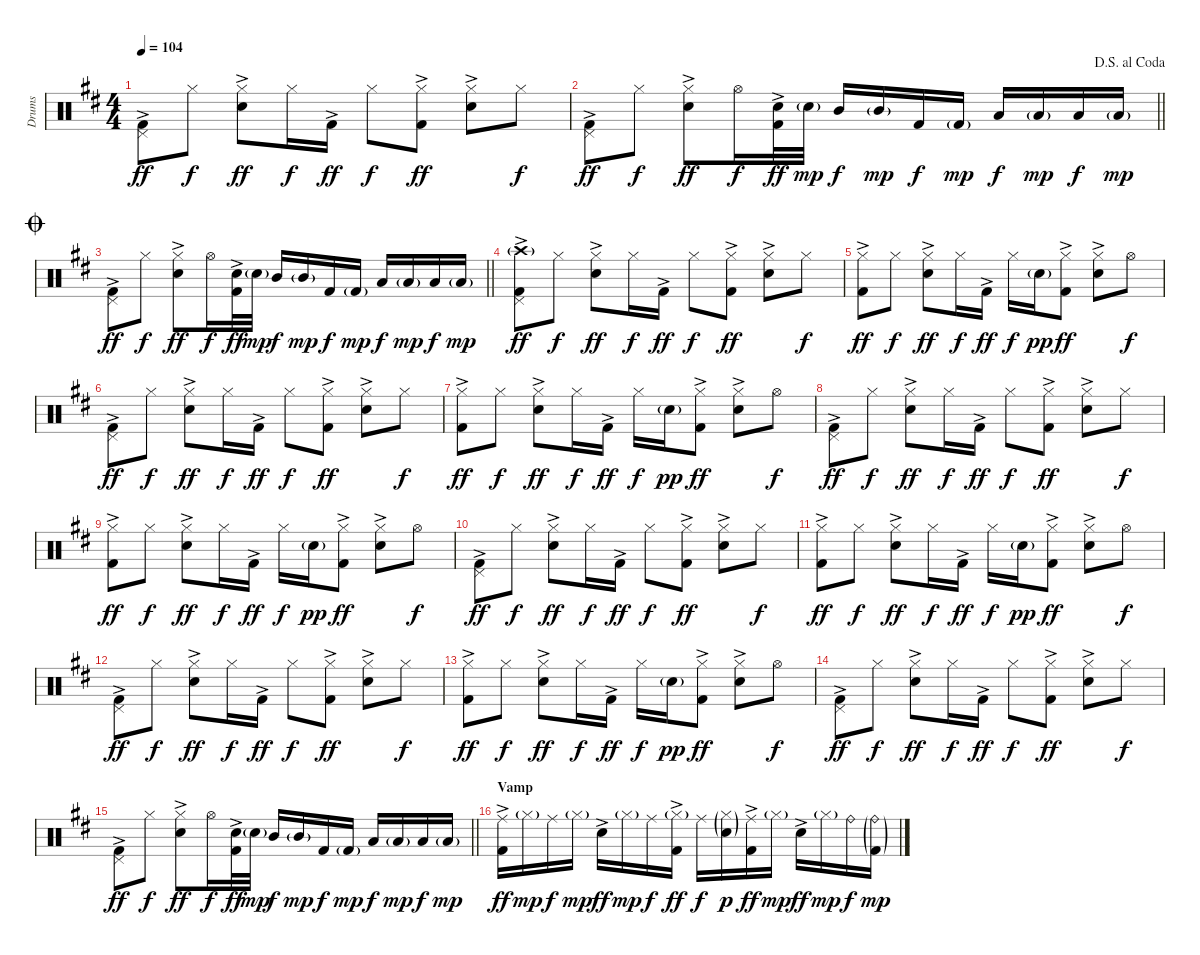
\track ("Drums" "Drums") {instrument percussion}
\staff {score}
\articulation defaults
\ts (4 4)
\tempo 104
\clef neutral
\ks d
("Pedal Hi-Hat (hit)" "Kick (hit) 2"{ac}).8{dy ff} "Hi-Hat (closed)".8{dy f} ("Hi-Hat (closed)" "Snare (hit) 2"{ac}).8{dy ff} "Hi-Hat (closed)".16{dy f} "Kick (hit) 2"{ac}.16{dy ff} "Hi-Hat (closed)".8{dy f} ("Hi-Hat (closed)" "Kick (hit) 2"{ac}).8{dy ff} ("Hi-Hat (closed)" "Snare (hit) 2"{ac}).8 "Hi-Hat (closed)".8{dy f} |
\jump dalsegnoalcoda
\barLineRight lightlight
("Pedal Hi-Hat (hit)" "Kick (hit) 2"{ac}).8{dy ff} "Hi-Hat (closed)".8{dy f} ("Hi-Hat (closed)" "Snare (hit) 2"{ac}).8{dy ff} "Hi-Hat (open)".16{dy f} ("Snare (hit) 2" "Kick (hit) 2"{ac}).32{dy ff} "Snare (hit) 2"{g}.32{dy mp} "Mid Tom (hit)".16{dy f} "Mid Tom (hit)"{g}.16{dy mp} "Kick (hit) 2".16{dy f} "Kick (hit) 2"{g}.16{dy mp} "Low Tom (hit)".16{dy f} "Low Tom (hit)"{g}.16{dy mp} "Low Floor Tom (hit)".16{dy f} "Low Floor Tom (hit)"{g}.16{dy mp} |
\jump coda
\barLineRight lightlight
("Pedal Hi-Hat (hit)" "Kick (hit) 2"{ac}).8{dy ff} "Hi-Hat (closed)".8{dy f} ("Hi-Hat (closed)" "Snare (hit) 2"{ac}).8{dy ff} "Hi-Hat (open)".16{dy f} ("Snare (hit) 2" "Kick (hit) 2"{ac}).32{dy ff} "Snare (hit) 2"{g}.32{dy mp} "Mid Tom (hit)".16{dy f} "Mid Tom (hit)"{g}.16{dy mp} "Kick (hit) 2".16{dy f} "Kick (hit) 2"{g}.16{dy mp} "Low Tom (hit)".16{dy f} "Low Tom (hit)"{g}.16{dy mp} "Low Floor Tom (hit)".16{dy f} "Low Floor Tom (hit)"{g}.16{dy mp} |
("Pedal Hi-Hat (hit)" "Crash high (hit)"{g} "Kick (hit) 2"{ac}).8{dy ff} "Hi-Hat (closed)".8{dy f} ("Hi-Hat (closed)" "Snare (hit) 2"{ac}).8{dy ff} "Hi-Hat (closed)".16{dy f} "Kick (hit) 2"{ac}.16{dy ff} "Hi-Hat (closed)".8{dy f} ("Hi-Hat (closed)" "Kick (hit) 2"{ac}).8{dy ff} ("Hi-Hat (closed)" "Snare (hit) 2"{ac}).8 "Hi-Hat (closed)".8{dy f} |
("Hi-Hat (closed)" "Kick (hit) 2"{ac}).8{dy ff} "Hi-Hat (closed)".8{dy f} ("Hi-Hat (closed)" "Snare (hit) 2"{ac}).8{dy ff} "Hi-Hat (closed)".16{dy f} "Kick (hit) 2"{ac}.16{dy ff} "Hi-Hat (closed)".16{dy f} "Snare (hit) 2"{g}.16{dy pp} ("Hi-Hat (closed)" "Kick (hit) 2"{ac}).8{dy ff} ("Hi-Hat (closed)" "Snare (hit) 2"{ac}).8 "Hi-Hat (open)".8{dy f} |
("Pedal Hi-Hat (hit)" "Kick (hit) 2"{ac}).8{dy ff} "Hi-Hat (closed)".8{dy f} ("Hi-Hat (closed)" "Snare (hit) 2"{ac}).8{dy ff} "Hi-Hat (closed)".16{dy f} "Kick (hit) 2"{ac}.16{dy ff} "Hi-Hat (closed)".8{dy f} ("Hi-Hat (closed)" "Kick (hit) 2"{ac}).8{dy ff} ("Hi-Hat (closed)" "Snare (hit) 2"{ac}).8 "Hi-Hat (closed)".8{dy f} |
("Hi-Hat (closed)" "Kick (hit) 2"{ac}).8{dy ff} "Hi-Hat (closed)".8{dy f} ("Hi-Hat (closed)" "Snare (hit) 2"{ac}).8{dy ff} "Hi-Hat (closed)".16{dy f} "Kick (hit) 2"{ac}.16{dy ff} "Hi-Hat (closed)".16{dy f} "Snare (hit) 2"{g}.16{dy pp} ("Hi-Hat (closed)" "Kick (hit) 2"{ac}).8{dy ff} ("Hi-Hat (closed)" "Snare (hit) 2"{ac}).8 "Hi-Hat (open)".8{dy f} |
("Pedal Hi-Hat (hit)" "Kick (hit) 2"{ac}).8{dy ff} "Hi-Hat (closed)".8{dy f} ("Hi-Hat (closed)" "Snare (hit) 2"{ac}).8{dy ff} "Hi-Hat (closed)".16{dy f} "Kick (hit) 2"{ac}.16{dy ff} "Hi-Hat (closed)".8{dy f} ("Hi-Hat (closed)" "Kick (hit) 2"{ac}).8{dy ff} ("Hi-Hat (closed)" "Snare (hit) 2"{ac}).8 "Hi-Hat (closed)".8{dy f} |
("Hi-Hat (closed)" "Kick (hit) 2"{ac}).8{dy ff} "Hi-Hat (closed)".8{dy f} ("Hi-Hat (closed)" "Snare (hit) 2"{ac}).8{dy ff} "Hi-Hat (closed)".16{dy f} "Kick (hit) 2"{ac}.16{dy ff} "Hi-Hat (closed)".16{dy f} "Snare (hit) 2"{g}.16{dy pp} ("Hi-Hat (closed)" "Kick (hit) 2"{ac}).8{dy ff} ("Hi-Hat (closed)" "Snare (hit) 2"{ac}).8 "Hi-Hat (open)".8{dy f} |
("Pedal Hi-Hat (hit)" "Kick (hit) 2"{ac}).8{dy ff} "Hi-Hat (closed)".8{dy f} ("Hi-Hat (closed)" "Snare (hit) 2"{ac}).8{dy ff} "Hi-Hat (closed)".16{dy f} "Kick (hit) 2"{ac}.16{dy ff} "Hi-Hat (closed)".8{dy f} ("Hi-Hat (closed)" "Kick (hit) 2"{ac}).8{dy ff} ("Hi-Hat (closed)" "Snare (hit) 2"{ac}).8 "Hi-Hat (closed)".8{dy f} |
("Hi-Hat (closed)" "Kick (hit) 2"{ac}).8{dy ff} "Hi-Hat (closed)".8{dy f} ("Hi-Hat (closed)" "Snare (hit) 2"{ac}).8{dy ff} "Hi-Hat (closed)".16{dy f} "Kick (hit) 2"{ac}.16{dy ff} "Hi-Hat (closed)".16{dy f} "Snare (hit) 2"{g}.16{dy pp} ("Hi-Hat (closed)" "Kick (hit) 2"{ac}).8{dy ff} ("Hi-Hat (closed)" "Snare (hit) 2"{ac}).8 "Hi-Hat (open)".8{dy f} |
("Pedal Hi-Hat (hit)" "Kick (hit) 2"{ac}).8{dy ff} "Hi-Hat (closed)".8{dy f} ("Hi-Hat (closed)" "Snare (hit) 2"{ac}).8{dy ff} "Hi-Hat (closed)".16{dy f} "Kick (hit) 2"{ac}.16{dy ff} "Hi-Hat (closed)".8{dy f} ("Hi-Hat (closed)" "Kick (hit) 2"{ac}).8{dy ff} ("Hi-Hat (closed)" "Snare (hit) 2"{ac}).8 "Hi-Hat (closed)".8{dy f} |
("Hi-Hat (closed)" "Kick (hit) 2"{ac}).8{dy ff} "Hi-Hat (closed)".8{dy f} ("Hi-Hat (closed)" "Snare (hit) 2"{ac}).8{dy ff} "Hi-Hat (closed)".16{dy f} "Kick (hit) 2"{ac}.16{dy ff} "Hi-Hat (closed)".16{dy f} "Snare (hit) 2"{g}.16{dy pp} ("Hi-Hat (closed)" "Kick (hit) 2"{ac}).8{dy ff} ("Hi-Hat (closed)" "Snare (hit) 2"{ac}).8 "Hi-Hat (open)".8{dy f} |
("Pedal Hi-Hat (hit)" "Kick (hit) 2"{ac}).8{dy ff} "Hi-Hat (closed)".8{dy f} ("Hi-Hat (closed)" "Snare (hit) 2"{ac}).8{dy ff} "Hi-Hat (closed)".16{dy f} "Kick (hit) 2"{ac}.16{dy ff} "Hi-Hat (closed)".8{dy f} ("Hi-Hat (closed)" "Kick (hit) 2"{ac}).8{dy ff} ("Hi-Hat (closed)" "Snare (hit) 2"{ac}).8 "Hi-Hat (closed)".8{dy f} |
\barLineRight lightlight
("Pedal Hi-Hat (hit)" "Kick (hit) 2"{ac}).8{dy ff} "Hi-Hat (closed)".8{dy f} ("Hi-Hat (closed)" "Snare (hit) 2"{ac}).8{dy ff} "Hi-Hat (open)".16{dy f} ("Snare (hit) 2" "Kick (hit) 2"{ac}).32{dy ff} "Snare (hit) 2"{g}.32{dy mp} "Mid Tom (hit)".16{dy f} "Mid Tom (hit)"{g}.16{dy mp} "Kick (hit) 2".16{dy f} "Kick (hit) 2"{g}.16{dy mp} "Low Tom (hit)".16{dy f} "Low Tom (hit)"{g}.16{dy mp} "Low Floor Tom (hit)".16{dy f} "Low Floor Tom (hit)"{g}.16{dy mp} |
\section ("" "Vamp")
("Ride (middle)" "Kick (hit) 2"{ac}).16{dy ff} "Hi-Hat (closed)"{g}.16{dy mp} "Ride (middle)".16{dy f} "Hi-Hat (closed)"{g}.16{dy mp} "Snare (hit) 2"{ac}.16{dy ff} "Hi-Hat (closed)"{g}.16{dy mp} "Ride (middle)".16{dy f} ("Hi-Hat (closed)"{g} "Kick (hit) 2"{ac}).16{dy ff} "Ride (middle)".16{dy f} ("Hi-Hat (closed)"{g} "Snare (hit) 2"{g}).16{dy p} ("Ride (middle)" "Kick (hit) 2"{ac}).16{dy ff} "Hi-Hat (closed)"{g}.16{dy mp} "Snare (hit) 2"{ac}.16{dy ff} "Hi-Hat (closed)"{g}.16{dy mp} "Ride (bell)".16{dy f} ("Ride (bell)"{g} "Kick (hit) 2"{g}).16{dy mp}
